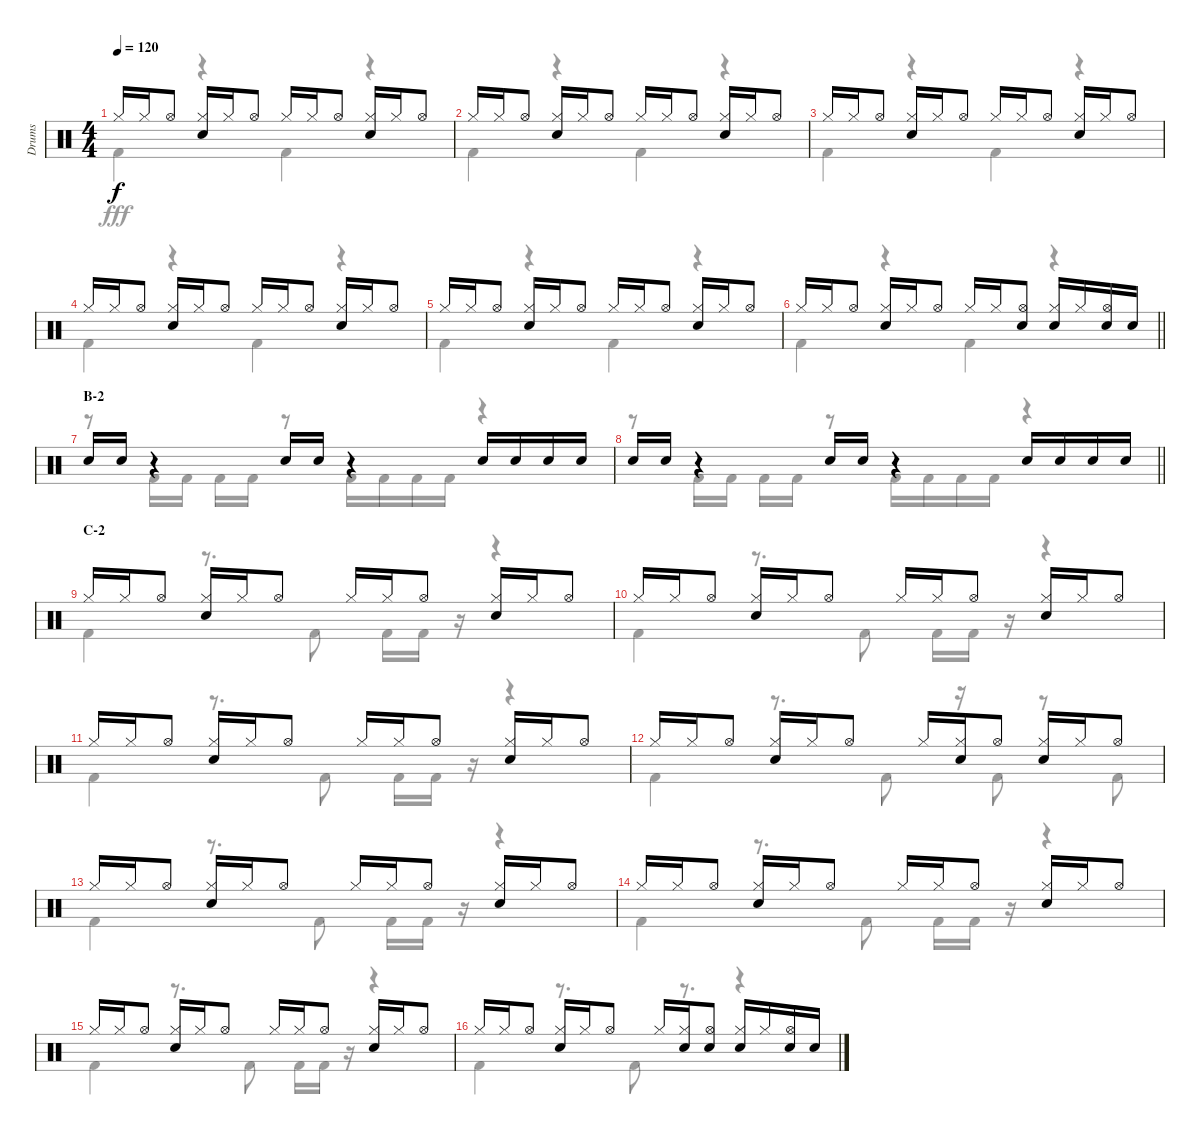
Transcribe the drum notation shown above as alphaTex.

\track ("Drums" "Drums") {instrument percussion}
\staff {score}
\articulation defaults
\voice
\ts (4 4)
\tempo 120
\clef neutral
\ks c "Hi-Hat (closed)".16{dy f} "Hi-Hat (closed)".16 "Hi-Hat (open)".8
("Hi-Hat (closed)" "Electric Snare (hit)").16 "Hi-Hat (closed)".16 "Hi-Hat (open)".8 "Hi-Hat (closed)".16 "Hi-Hat (closed)".16 "Hi-Hat (open)".8 ("Hi-Hat (closed)" "Electric Snare (hit)").16 "Hi-Hat (closed)".16 "Hi-Hat (open)".8 |
"Hi-Hat (closed)".16 "Hi-Hat (closed)".16 "Hi-Hat (open)".8 ("Hi-Hat (closed)" "Electric Snare (hit)").16 "Hi-Hat (closed)".16 "Hi-Hat (open)".8 "Hi-Hat (closed)".16 "Hi-Hat (closed)".16 "Hi-Hat (open)".8 ("Hi-Hat (closed)" "Electric Snare (hit)").16 "Hi-Hat (closed)".16 "Hi-Hat (open)".8 |
"Hi-Hat (closed)".16 "Hi-Hat (closed)".16 "Hi-Hat (open)".8 ("Hi-Hat (closed)" "Electric Snare (hit)").16 "Hi-Hat (closed)".16 "Hi-Hat (open)".8 "Hi-Hat (closed)".16 "Hi-Hat (closed)".16 "Hi-Hat (open)".8 ("Hi-Hat (closed)" "Electric Snare (hit)").16 "Hi-Hat (closed)".16 "Hi-Hat (open)".8 |
"Hi-Hat (closed)".16 "Hi-Hat (closed)".16 "Hi-Hat (open)".8 ("Hi-Hat (closed)" "Electric Snare (hit)").16 "Hi-Hat (closed)".16 "Hi-Hat (open)".8 "Hi-Hat (closed)".16 "Hi-Hat (closed)".16 "Hi-Hat (open)".8 ("Hi-Hat (closed)" "Electric Snare (hit)").16 "Hi-Hat (closed)".16 "Hi-Hat (open)".8 |
"Hi-Hat (closed)".16 "Hi-Hat (closed)".16 "Hi-Hat (open)".8 ("Hi-Hat (closed)" "Electric Snare (hit)").16 "Hi-Hat (closed)".16 "Hi-Hat (open)".8 "Hi-Hat (closed)".16 "Hi-Hat (closed)".16 "Hi-Hat (open)".8 ("Hi-Hat (closed)" "Electric Snare (hit)").16 "Hi-Hat (closed)".16 "Hi-Hat (open)".8 |
\barLineRight lightlight "Hi-Hat (closed)".16 "Hi-Hat (closed)".16 "Hi-Hat (open)".8
("Hi-Hat (closed)" "Electric Snare (hit)").16 "Hi-Hat (closed)".16 "Hi-Hat (open)".8 "Hi-Hat (closed)".16 "Hi-Hat (closed)".16 ("Hi-Hat (open)" "Electric Snare (hit)").8 ("Hi-Hat (closed)" "Electric Snare (hit)").16 "Hi-Hat (closed)".16 ("Hi-Hat (open)" "Electric Snare (hit)").16 "Electric Snare (hit)".16 |
\section ("" "B-2")
"Electric Snare (hit)".16 "Electric Snare (hit)".16 r.4 "Electric Snare (hit)".16 "Electric Snare (hit)".16 r.4 "Electric Snare (hit)".16 "Electric Snare (hit)".16 "Electric Snare (hit)".16 "Electric Snare (hit)".16 |
\barLineRight lightlight "Electric Snare (hit)".16 "Electric Snare (hit)".16
r.4 "Electric Snare (hit)".16 "Electric Snare (hit)".16 r.4 "Electric Snare (hit)".16 "Electric Snare (hit)".16 "Electric Snare (hit)".16 "Electric Snare (hit)".16 |
\section ("" "C-2")
"Hi-Hat (closed)".16 "Hi-Hat (closed)".16 "Hi-Hat (open)".8 ("Hi-Hat (closed)" "Electric Snare (hit)").16 "Hi-Hat (closed)".16 "Hi-Hat (open)".8 "Hi-Hat (closed)".16 "Hi-Hat (closed)".16 "Hi-Hat (open)".8 ("Hi-Hat (closed)" "Electric Snare (hit)").16 "Hi-Hat (closed)".16 "Hi-Hat (open)".8 |
"Hi-Hat (closed)".16 "Hi-Hat (closed)".16 "Hi-Hat (open)".8 ("Hi-Hat (closed)" "Electric Snare (hit)").16 "Hi-Hat (closed)".16 "Hi-Hat (open)".8 "Hi-Hat (closed)".16 "Hi-Hat (closed)".16 "Hi-Hat (open)".8 ("Hi-Hat (closed)" "Electric Snare (hit)").16 "Hi-Hat (closed)".16 "Hi-Hat (open)".8 |
"Hi-Hat (closed)".16 "Hi-Hat (closed)".16 "Hi-Hat (open)".8 ("Hi-Hat (closed)" "Electric Snare (hit)").16 "Hi-Hat (closed)".16 "Hi-Hat (open)".8 "Hi-Hat (closed)".16 "Hi-Hat (closed)".16 "Hi-Hat (open)".8 ("Hi-Hat (closed)" "Electric Snare (hit)").16 "Hi-Hat (closed)".16 "Hi-Hat (open)".8 |
"Hi-Hat (closed)".16 "Hi-Hat (closed)".16 "Hi-Hat (open)".8 ("Hi-Hat (closed)" "Electric Snare (hit)").16 "Hi-Hat (closed)".16 "Hi-Hat (open)".8 "Hi-Hat (closed)".16 ("Hi-Hat (closed)" "Electric Snare (hit)").16 "Hi-Hat (open)".8 ("Hi-Hat (closed)" "Electric Snare (hit)").16 "Hi-Hat (closed)".16 "Hi-Hat (open)".8 |
"Hi-Hat (closed)".16 "Hi-Hat (closed)".16 "Hi-Hat (open)".8 ("Hi-Hat (closed)" "Electric Snare (hit)").16 "Hi-Hat (closed)".16 "Hi-Hat (open)".8 "Hi-Hat (closed)".16 "Hi-Hat (closed)".16 "Hi-Hat (open)".8 ("Hi-Hat (closed)" "Electric Snare (hit)").16 "Hi-Hat (closed)".16 "Hi-Hat (open)".8 |
"Hi-Hat (closed)".16 "Hi-Hat (closed)".16 "Hi-Hat (open)".8 ("Hi-Hat (closed)" "Electric Snare (hit)").16 "Hi-Hat (closed)".16 "Hi-Hat (open)".8 "Hi-Hat (closed)".16 "Hi-Hat (closed)".16 "Hi-Hat (open)".8 ("Hi-Hat (closed)" "Electric Snare (hit)").16 "Hi-Hat (closed)".16 "Hi-Hat (open)".8 |
"Hi-Hat (closed)".16 "Hi-Hat (closed)".16 "Hi-Hat (open)".8 ("Hi-Hat (closed)" "Electric Snare (hit)").16 "Hi-Hat (closed)".16 "Hi-Hat (open)".8 "Hi-Hat (closed)".16 "Hi-Hat (closed)".16 "Hi-Hat (open)".8 ("Hi-Hat (closed)" "Electric Snare (hit)").16 "Hi-Hat (closed)".16 "Hi-Hat (open)".8 |
"Hi-Hat (closed)".16 "Hi-Hat (closed)".16 "Hi-Hat (open)".8 ("Hi-Hat (closed)" "Electric Snare (hit)").16 "Hi-Hat (closed)".16 "Hi-Hat (open)".8 "Hi-Hat (closed)".16 ("Hi-Hat (closed)" "Electric Snare (hit)").16 ("Hi-Hat (open)" "Electric Snare (hit)").8 ("Hi-Hat (closed)" "Electric Snare (hit)").16 "Hi-Hat (closed)".16 ("Hi-Hat (open)" "Electric Snare (hit)").16 "Electric Snare (hit)".16
\voice
\clef neutral
\ottava regular
\simile none
\ks c "Kick (hit) 2".4{dy fff}
r.4 "Kick (hit) 2".4 r.4 |
"Kick (hit) 2".4 r.4 "Kick (hit) 2".4 r.4 |
"Kick (hit) 2".4 r.4 "Kick (hit) 2".4 r.4 |
"Kick (hit) 2".4 r.4 "Kick (hit) 2".4 r.4 |
"Kick (hit) 2".4 r.4 "Kick (hit) 2".4 r.4 |
\barLineRight lightlight "Kick (hit) 2".4
r.4 "Kick (hit) 2".4 r.4 |
r.8 "Kick (hit) 2".16 "Kick (hit) 2".16 "Kick (hit) 2".16 "Kick (hit) 2".16 r.8 "Kick (hit) 2".16 "Kick (hit) 2".16 "Kick (hit) 2".16 "Kick (hit) 2".16 r.4 |
\barLineRight lightlight
r.8 "Kick (hit) 2".16 "Kick (hit) 2".16 "Kick (hit) 2".16 "Kick (hit) 2".16 r.8 "Kick (hit) 2".16 "Kick (hit) 2".16 "Kick (hit) 2".16 "Kick (hit) 2".16 r.4 |
"Kick (hit) 2".4 r.8{d} "Kick (hit) 2".8 "Kick (hit) 2".16 "Kick (hit) 2".16 r.16 r.4 |
"Kick (hit) 2".4 r.8{d} "Kick (hit) 2".8 "Kick (hit) 2".16 "Kick (hit) 2".16 r.16 r.4 |
"Kick (hit) 2".4 r.8{d} "Kick (hit) 2".8 "Kick (hit) 2".16 "Kick (hit) 2".16 r.16 r.4 |
"Kick (hit) 2".4 r.8{d} "Kick (hit) 2".8 r.16 "Kick (hit) 2".8 r.8 "Kick (hit) 2".8 |
"Kick (hit) 2".4 r.8{d} "Kick (hit) 2".8 "Kick (hit) 2".16 "Kick (hit) 2".16 r.16 r.4 |
"Kick (hit) 2".4 r.8{d} "Kick (hit) 2".8 "Kick (hit) 2".16 "Kick (hit) 2".16 r.16 r.4 |
"Kick (hit) 2".4 r.8{d} "Kick (hit) 2".8 "Kick (hit) 2".16 "Kick (hit) 2".16 r.16 r.4 |
"Kick (hit) 2".4 r.8{d} "Kick (hit) 2".8 r.8{d} r.4
